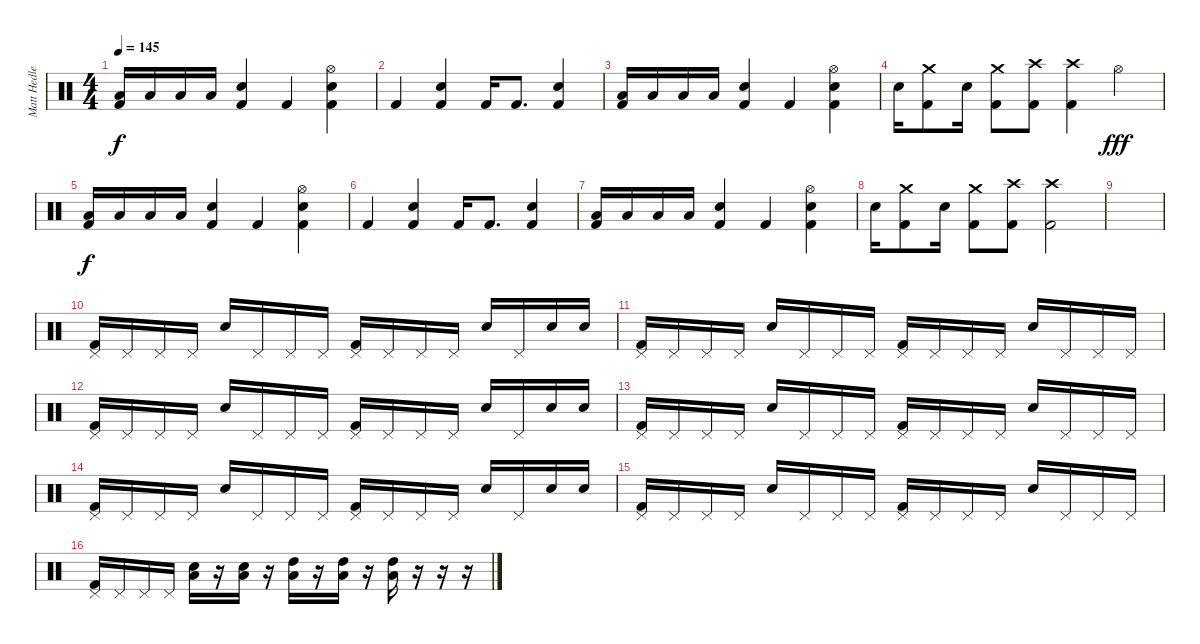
\track ("Matt Hedlers" "Matt Hedle") {instrument percussion}
\staff {score}
\articulation defaults
\ts (4 4)
\tempo 145
\clef neutral
\ks c
("Low Tom (hit)" "Kick (hit) 2").16{dy f} "Low Tom (hit)".16 "Low Tom (hit)".16 "Low Tom (hit)".16 ("Snare (hit) 2" "Kick (hit) 2").4 "Kick (hit) 2".4 ("Hi-Hat (open)" "Snare (hit) 2" "Kick (hit) 2").4 |
"Kick (hit) 2".4 ("Snare (hit) 2" "Kick (hit) 2").4 "Kick (hit) 2".16 "Kick (hit) 2".8{d} ("Snare (hit) 2" "Kick (hit) 2").4 |
("Low Tom (hit)" "Kick (hit) 2").16 "Low Tom (hit)".16 "Low Tom (hit)".16 "Low Tom (hit)".16 ("Snare (hit) 2" "Kick (hit) 2").4 "Kick (hit) 2".4 ("Hi-Hat (open)" "Snare (hit) 2" "Kick (hit) 2").4 |
"Snare (hit) 2".16 ("Crash medium (hit)" "Kick (hit) 2").8 "Snare (hit) 2".16 ("Crash medium (hit)" "Kick (hit) 2").8 ("Crash high (hit)" "Kick (hit) 2").8 ("Crash high (hit)" "Kick (hit) 2").4 "Hi-Hat (open)".4{dy fff} |
("Low Tom (hit)" "Kick (hit) 2").16{dy f} "Low Tom (hit)".16 "Low Tom (hit)".16 "Low Tom (hit)".16 ("Snare (hit) 2" "Kick (hit) 2").4 "Kick (hit) 2".4 ("Hi-Hat (open)" "Snare (hit) 2" "Kick (hit) 2").4 |
"Kick (hit) 2".4 ("Snare (hit) 2" "Kick (hit) 2").4 "Kick (hit) 2".16 "Kick (hit) 2".8{d} ("Snare (hit) 2" "Kick (hit) 2").4 |
("Low Tom (hit)" "Kick (hit) 2").16 "Low Tom (hit)".16 "Low Tom (hit)".16 "Low Tom (hit)".16 ("Snare (hit) 2" "Kick (hit) 2").4 "Kick (hit) 2".4 ("Hi-Hat (open)" "Snare (hit) 2" "Kick (hit) 2").4 |
"Snare (hit) 2".16 ("Crash medium (hit)" "Kick (hit) 2").8 "Snare (hit) 2".16 ("Crash medium (hit)" "Kick (hit) 2").8 ("Crash high (hit)" "Kick (hit) 2").8 ("Crash high (hit)" "Kick (hit) 2").2 |
|
("Pedal Hi-Hat (hit)" "Kick (hit) 2").16 "Pedal Hi-Hat (hit)".16 "Pedal Hi-Hat (hit)".16 "Pedal Hi-Hat (hit)".16 "Snare (hit) 2".16 "Pedal Hi-Hat (hit)".16 "Pedal Hi-Hat (hit)".16 "Pedal Hi-Hat (hit)".16 ("Pedal Hi-Hat (hit)" "Kick (hit) 2").16 "Pedal Hi-Hat (hit)".16 "Pedal Hi-Hat (hit)".16 "Pedal Hi-Hat (hit)".16 "Snare (hit) 2".16 "Pedal Hi-Hat (hit)".16 "Snare (hit) 2".16 "Snare (hit) 2".16 |
("Pedal Hi-Hat (hit)" "Kick (hit) 2").16 "Pedal Hi-Hat (hit)".16 "Pedal Hi-Hat (hit)".16 "Pedal Hi-Hat (hit)".16 "Snare (hit) 2".16 "Pedal Hi-Hat (hit)".16 "Pedal Hi-Hat (hit)".16 "Pedal Hi-Hat (hit)".16 ("Pedal Hi-Hat (hit)" "Kick (hit) 2").16 "Pedal Hi-Hat (hit)".16 "Pedal Hi-Hat (hit)".16 "Pedal Hi-Hat (hit)".16 "Snare (hit) 2".16 "Pedal Hi-Hat (hit)".16 "Pedal Hi-Hat (hit)".16 "Pedal Hi-Hat (hit)".16 |
("Pedal Hi-Hat (hit)" "Kick (hit) 2").16 "Pedal Hi-Hat (hit)".16 "Pedal Hi-Hat (hit)".16 "Pedal Hi-Hat (hit)".16 "Snare (hit) 2".16 "Pedal Hi-Hat (hit)".16 "Pedal Hi-Hat (hit)".16 "Pedal Hi-Hat (hit)".16 ("Pedal Hi-Hat (hit)" "Kick (hit) 2").16 "Pedal Hi-Hat (hit)".16 "Pedal Hi-Hat (hit)".16 "Pedal Hi-Hat (hit)".16 "Snare (hit) 2".16 "Pedal Hi-Hat (hit)".16 "Snare (hit) 2".16 "Snare (hit) 2".16 |
("Pedal Hi-Hat (hit)" "Kick (hit) 2").16 "Pedal Hi-Hat (hit)".16 "Pedal Hi-Hat (hit)".16 "Pedal Hi-Hat (hit)".16 "Snare (hit) 2".16 "Pedal Hi-Hat (hit)".16 "Pedal Hi-Hat (hit)".16 "Pedal Hi-Hat (hit)".16 ("Pedal Hi-Hat (hit)" "Kick (hit) 2").16 "Pedal Hi-Hat (hit)".16 "Pedal Hi-Hat (hit)".16 "Pedal Hi-Hat (hit)".16 "Snare (hit) 2".16 "Pedal Hi-Hat (hit)".16 "Pedal Hi-Hat (hit)".16 "Pedal Hi-Hat (hit)".16 |
("Pedal Hi-Hat (hit)" "Kick (hit) 2").16 "Pedal Hi-Hat (hit)".16 "Pedal Hi-Hat (hit)".16 "Pedal Hi-Hat (hit)".16 "Snare (hit) 2".16 "Pedal Hi-Hat (hit)".16 "Pedal Hi-Hat (hit)".16 "Pedal Hi-Hat (hit)".16 ("Pedal Hi-Hat (hit)" "Kick (hit) 2").16 "Pedal Hi-Hat (hit)".16 "Pedal Hi-Hat (hit)".16 "Pedal Hi-Hat (hit)".16 "Snare (hit) 2".16 "Pedal Hi-Hat (hit)".16 "Snare (hit) 2".16 "Snare (hit) 2".16 |
("Pedal Hi-Hat (hit)" "Kick (hit) 2").16 "Pedal Hi-Hat (hit)".16 "Pedal Hi-Hat (hit)".16 "Pedal Hi-Hat (hit)".16 "Snare (hit) 2".16 "Pedal Hi-Hat (hit)".16 "Pedal Hi-Hat (hit)".16 "Pedal Hi-Hat (hit)".16 ("Pedal Hi-Hat (hit)" "Kick (hit) 2").16 "Pedal Hi-Hat (hit)".16 "Pedal Hi-Hat (hit)".16 "Pedal Hi-Hat (hit)".16 "Snare (hit) 2".16 "Pedal Hi-Hat (hit)".16 "Pedal Hi-Hat (hit)".16 "Pedal Hi-Hat (hit)".16 |
("Pedal Hi-Hat (hit)" "Kick (hit) 2").16 "Pedal Hi-Hat (hit)".16 "Pedal Hi-Hat (hit)".16 "Pedal Hi-Hat (hit)".16 ("Low Tom (hit)" "Snare (hit) 2").16 r.16 ("Low Tom (hit)" "Snare (hit) 2").16 r.16 ("High Tom (hit)" "Low Tom (hit)").16 r.16 ("High Tom (hit)" "Low Tom (hit)").16 r.16 ("High Tom (hit)" "Low Tom (hit)").16 r.16 r.16 r.16
